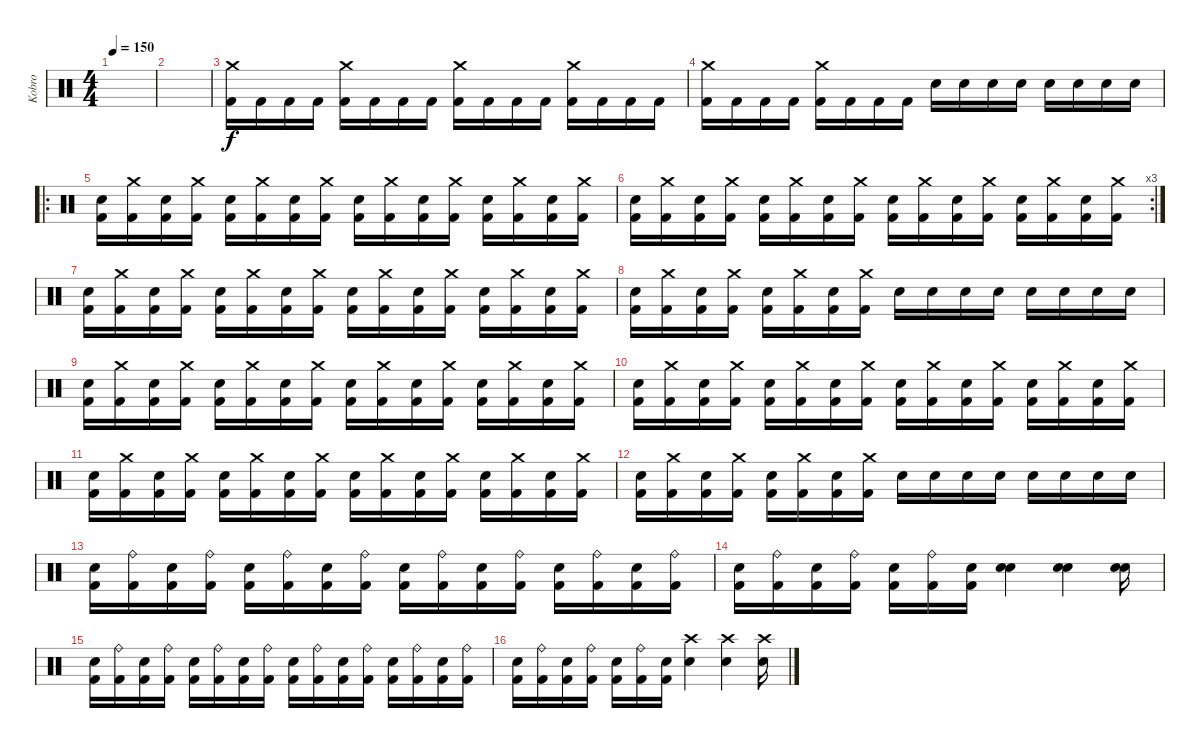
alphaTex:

\track ("Kobro" "Kobro") {instrument percussion}
\staff {score}
\articulation defaults
\ts (4 4)
\tempo 150
\clef neutral
\ks c
|
|
("Kick (hit) 2" "Crash medium (hit)").16 "Kick (hit) 2".16 "Kick (hit) 2".16 "Kick (hit) 2".16 ("Kick (hit) 2" "Crash medium (hit)").16 "Kick (hit) 2".16 "Kick (hit) 2".16 "Kick (hit) 2".16 ("Kick (hit) 2" "Crash medium (hit)").16 "Kick (hit) 2".16 "Kick (hit) 2".16 "Kick (hit) 2".16 ("Kick (hit) 2" "Crash medium (hit)").16 "Kick (hit) 2".16 "Kick (hit) 2".16 "Kick (hit) 2".16 |
("Kick (hit) 2" "Crash medium (hit)").16 "Kick (hit) 2".16 "Kick (hit) 2".16 "Kick (hit) 2".16 ("Kick (hit) 2" "Crash medium (hit)").16 "Kick (hit) 2".16 "Kick (hit) 2".16 "Kick (hit) 2".16 "Electric Snare (hit)".16 "Electric Snare (hit)".16 "Electric Snare (hit)".16 "Electric Snare (hit)".16 "Electric Snare (hit)".16 "Electric Snare (hit)".16 "Electric Snare (hit)".16 "Electric Snare (hit)".16 |
\ro
("Kick (hit) 2" "Snare (hit) 2").16 ("Kick (hit) 2" "Crash medium (hit)").16 ("Kick (hit) 2" "Snare (hit) 2").16 ("Kick (hit) 2" "Crash medium (hit)").16 ("Kick (hit) 2" "Snare (hit) 2").16 ("Kick (hit) 2" "Crash medium (hit)").16 ("Kick (hit) 2" "Snare (hit) 2").16 ("Kick (hit) 2" "Crash medium (hit)").16 ("Kick (hit) 2" "Snare (hit) 2").16 ("Kick (hit) 2" "Crash medium (hit)").16 ("Kick (hit) 2" "Snare (hit) 2").16 ("Kick (hit) 2" "Crash medium (hit)").16 ("Kick (hit) 2" "Snare (hit) 2").16 ("Kick (hit) 2" "Crash medium (hit)").16 ("Kick (hit) 2" "Snare (hit) 2").16 ("Kick (hit) 2" "Crash medium (hit)").16 |
\rc 3
("Kick (hit) 2" "Snare (hit) 2").16 ("Kick (hit) 2" "Crash medium (hit)").16 ("Kick (hit) 2" "Snare (hit) 2").16 ("Kick (hit) 2" "Crash medium (hit)").16 ("Kick (hit) 2" "Snare (hit) 2").16 ("Kick (hit) 2" "Crash medium (hit)").16 ("Kick (hit) 2" "Snare (hit) 2").16 ("Kick (hit) 2" "Crash medium (hit)").16 ("Kick (hit) 2" "Snare (hit) 2").16 ("Kick (hit) 2" "Crash medium (hit)").16 ("Kick (hit) 2" "Snare (hit) 2").16 ("Kick (hit) 2" "Crash medium (hit)").16 ("Kick (hit) 2" "Snare (hit) 2").16 ("Kick (hit) 2" "Crash medium (hit)").16 ("Kick (hit) 2" "Snare (hit) 2").16 ("Kick (hit) 2" "Crash medium (hit)").16 |
("Kick (hit) 2" "Snare (hit) 2").16 ("Kick (hit) 2" "Crash medium (hit)").16 ("Kick (hit) 2" "Snare (hit) 2").16 ("Kick (hit) 2" "Crash medium (hit)").16 ("Kick (hit) 2" "Snare (hit) 2").16 ("Kick (hit) 2" "Crash medium (hit)").16 ("Kick (hit) 2" "Snare (hit) 2").16 ("Kick (hit) 2" "Crash medium (hit)").16 ("Kick (hit) 2" "Snare (hit) 2").16 ("Kick (hit) 2" "Crash medium (hit)").16 ("Kick (hit) 2" "Snare (hit) 2").16 ("Kick (hit) 2" "Crash medium (hit)").16 ("Kick (hit) 2" "Snare (hit) 2").16 ("Kick (hit) 2" "Crash medium (hit)").16 ("Kick (hit) 2" "Snare (hit) 2").16 ("Kick (hit) 2" "Crash medium (hit)").16 |
("Kick (hit) 2" "Snare (hit) 2").16 ("Kick (hit) 2" "Crash medium (hit)").16 ("Kick (hit) 2" "Snare (hit) 2").16 ("Kick (hit) 2" "Crash medium (hit)").16 ("Kick (hit) 2" "Snare (hit) 2").16 ("Kick (hit) 2" "Crash medium (hit)").16 ("Kick (hit) 2" "Snare (hit) 2").16 ("Kick (hit) 2" "Crash medium (hit)").16 "Electric Snare (hit)".16 "Electric Snare (hit)".16 "Electric Snare (hit)".16 "Electric Snare (hit)".16 "Electric Snare (hit)".16 "Electric Snare (hit)".16 "Electric Snare (hit)".16 "Electric Snare (hit)".16 |
("Kick (hit) 2" "Snare (hit) 2").16 ("Kick (hit) 2" "Crash medium (hit)").16 ("Kick (hit) 2" "Snare (hit) 2").16 ("Kick (hit) 2" "Crash medium (hit)").16 ("Kick (hit) 2" "Snare (hit) 2").16 ("Kick (hit) 2" "Crash medium (hit)").16 ("Kick (hit) 2" "Snare (hit) 2").16 ("Kick (hit) 2" "Crash medium (hit)").16 ("Kick (hit) 2" "Snare (hit) 2").16 ("Kick (hit) 2" "Crash medium (hit)").16 ("Kick (hit) 2" "Snare (hit) 2").16 ("Kick (hit) 2" "Crash medium (hit)").16 ("Kick (hit) 2" "Snare (hit) 2").16 ("Kick (hit) 2" "Crash medium (hit)").16 ("Kick (hit) 2" "Snare (hit) 2").16 ("Kick (hit) 2" "Crash medium (hit)").16 |
("Kick (hit) 2" "Snare (hit) 2").16 ("Kick (hit) 2" "Crash medium (hit)").16 ("Kick (hit) 2" "Snare (hit) 2").16 ("Kick (hit) 2" "Crash medium (hit)").16 ("Kick (hit) 2" "Snare (hit) 2").16 ("Kick (hit) 2" "Crash medium (hit)").16 ("Kick (hit) 2" "Snare (hit) 2").16 ("Kick (hit) 2" "Crash medium (hit)").16 ("Kick (hit) 2" "Snare (hit) 2").16 ("Kick (hit) 2" "Crash medium (hit)").16 ("Kick (hit) 2" "Snare (hit) 2").16 ("Kick (hit) 2" "Crash medium (hit)").16 ("Kick (hit) 2" "Snare (hit) 2").16 ("Kick (hit) 2" "Crash medium (hit)").16 ("Kick (hit) 2" "Snare (hit) 2").16 ("Kick (hit) 2" "Crash medium (hit)").16 |
("Kick (hit) 2" "Snare (hit) 2").16 ("Kick (hit) 2" "Crash medium (hit)").16 ("Kick (hit) 2" "Snare (hit) 2").16 ("Kick (hit) 2" "Crash medium (hit)").16 ("Kick (hit) 2" "Snare (hit) 2").16 ("Kick (hit) 2" "Crash medium (hit)").16 ("Kick (hit) 2" "Snare (hit) 2").16 ("Kick (hit) 2" "Crash medium (hit)").16 ("Kick (hit) 2" "Snare (hit) 2").16 ("Kick (hit) 2" "Crash medium (hit)").16 ("Kick (hit) 2" "Snare (hit) 2").16 ("Kick (hit) 2" "Crash medium (hit)").16 ("Kick (hit) 2" "Snare (hit) 2").16 ("Kick (hit) 2" "Crash medium (hit)").16 ("Kick (hit) 2" "Snare (hit) 2").16 ("Kick (hit) 2" "Crash medium (hit)").16 |
("Kick (hit) 2" "Snare (hit) 2").16 ("Kick (hit) 2" "Crash medium (hit)").16 ("Kick (hit) 2" "Snare (hit) 2").16 ("Kick (hit) 2" "Crash medium (hit)").16 ("Kick (hit) 2" "Snare (hit) 2").16 ("Kick (hit) 2" "Crash medium (hit)").16 ("Kick (hit) 2" "Snare (hit) 2").16 ("Kick (hit) 2" "Crash medium (hit)").16 "Electric Snare (hit)".16 "Electric Snare (hit)".16 "Electric Snare (hit)".16 "Electric Snare (hit)".16 "Snare (hit) 2".16 "Snare (hit) 2".16 "Snare (hit) 2".16 "Snare (hit) 2".16 |
("Kick (hit) 2" "Electric Snare (hit)").16 ("Kick (hit) 2" "Ride (bell)").16 ("Kick (hit) 2" "Electric Snare (hit)").16 ("Kick (hit) 2" "Ride (bell)").16 ("Kick (hit) 2" "Electric Snare (hit)").16 ("Kick (hit) 2" "Ride (bell)").16 ("Kick (hit) 2" "Electric Snare (hit)").16 ("Kick (hit) 2" "Ride (bell)").16 ("Kick (hit) 2" "Electric Snare (hit)").16 ("Kick (hit) 2" "Ride (bell)").16 ("Kick (hit) 2" "Electric Snare (hit)").16 ("Kick (hit) 2" "Ride (bell)").16 ("Kick (hit) 2" "Electric Snare (hit)").16 ("Kick (hit) 2" "Ride (bell)").16 ("Kick (hit) 2" "Electric Snare (hit)").16 ("Kick (hit) 2" "Ride (bell)").16 |
("Kick (hit) 2" "Electric Snare (hit)").16 ("Kick (hit) 2" "Ride (bell)").16 ("Kick (hit) 2" "Electric Snare (hit)").16 ("Kick (hit) 2" "Ride (bell)").16 ("Kick (hit) 2" "Electric Snare (hit)").16 ("Kick (hit) 2" "Ride (bell)").16 ("Kick (hit) 2" "Electric Snare (hit)").16 ("Snare (hit) 2" "Electric Snare (hit)").4 ("Snare (hit) 2" "Electric Snare (hit)").4 ("Snare (hit) 2" "Electric Snare (hit)").16 |
("Kick (hit) 2" "Electric Snare (hit)").16 ("Kick (hit) 2" "Ride (bell)").16 ("Kick (hit) 2" "Electric Snare (hit)").16 ("Kick (hit) 2" "Ride (bell)").16 ("Kick (hit) 2" "Electric Snare (hit)").16 ("Kick (hit) 2" "Ride (bell)").16 ("Kick (hit) 2" "Electric Snare (hit)").16 ("Kick (hit) 2" "Ride (bell)").16 ("Kick (hit) 2" "Electric Snare (hit)").16 ("Kick (hit) 2" "Ride (bell)").16 ("Kick (hit) 2" "Electric Snare (hit)").16 ("Kick (hit) 2" "Ride (bell)").16 ("Kick (hit) 2" "Electric Snare (hit)").16 ("Kick (hit) 2" "Ride (bell)").16 ("Kick (hit) 2" "Electric Snare (hit)").16 ("Kick (hit) 2" "Ride (bell)").16 |
("Kick (hit) 2" "Electric Snare (hit)").16 ("Kick (hit) 2" "Ride (bell)").16 ("Kick (hit) 2" "Electric Snare (hit)").16 ("Kick (hit) 2" "Ride (bell)").16 ("Kick (hit) 2" "Electric Snare (hit)").16 ("Kick (hit) 2" "Ride (bell)").16 ("Kick (hit) 2" "Electric Snare (hit)").16 ("Snare (hit) 2" "Crash high (hit)").4 ("Snare (hit) 2" "Crash high (hit)").4 ("Snare (hit) 2" "Crash high (hit)").16
